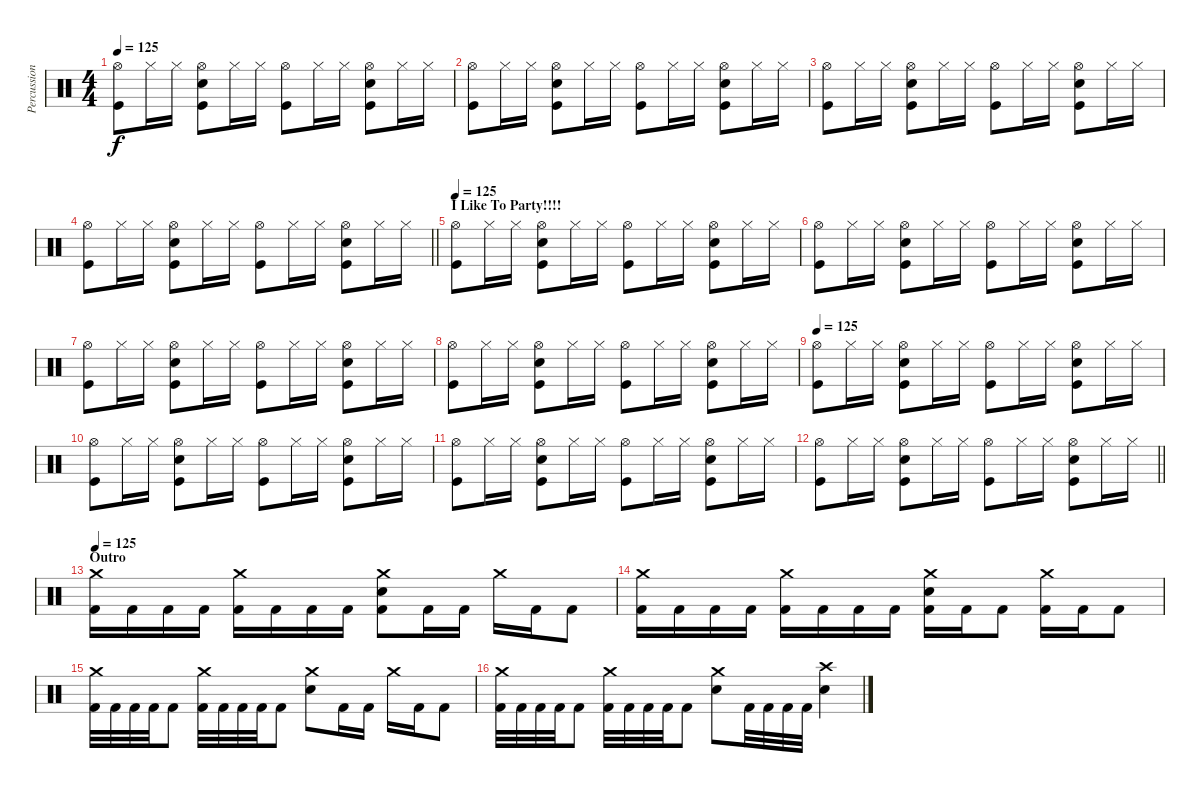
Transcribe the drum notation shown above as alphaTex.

\track ("Percussion" "Percussion") {instrument percussion}
\staff {score}
\articulation defaults
\ts (4 4)
\tempo 125
\clef neutral
\ks c
("Hi-Hat (open)" "Kick (hit)").8{dy f} "Hi-Hat (closed)".16 "Hi-Hat (closed)".16 ("Hi-Hat (open)" "Hand Clap (hit)" "Kick (hit)").8 "Hi-Hat (closed)".16 "Hi-Hat (closed)".16 ("Hi-Hat (open)" "Kick (hit)").8 "Hi-Hat (closed)".16 "Hi-Hat (closed)".16 ("Hi-Hat (open)" "Hand Clap (hit)" "Kick (hit)").8 "Hi-Hat (closed)".16 "Hi-Hat (closed)".16 |
("Hi-Hat (open)" "Kick (hit)").8 "Hi-Hat (closed)".16 "Hi-Hat (closed)".16 ("Hi-Hat (open)" "Hand Clap (hit)" "Kick (hit)").8 "Hi-Hat (closed)".16 "Hi-Hat (closed)".16 ("Hi-Hat (open)" "Kick (hit)").8 "Hi-Hat (closed)".16 "Hi-Hat (closed)".16 ("Hi-Hat (open)" "Hand Clap (hit)" "Kick (hit)").8 "Hi-Hat (closed)".16 "Hi-Hat (closed)".16 |
("Hi-Hat (open)" "Kick (hit)").8 "Hi-Hat (closed)".16 "Hi-Hat (closed)".16 ("Hi-Hat (open)" "Hand Clap (hit)" "Kick (hit)").8 "Hi-Hat (closed)".16 "Hi-Hat (closed)".16 ("Hi-Hat (open)" "Kick (hit)").8 "Hi-Hat (closed)".16 "Hi-Hat (closed)".16 ("Hi-Hat (open)" "Hand Clap (hit)" "Kick (hit)").8 "Hi-Hat (closed)".16 "Hi-Hat (closed)".16 |
\barLineRight lightlight
("Hi-Hat (open)" "Kick (hit)").8 "Hi-Hat (closed)".16 "Hi-Hat (closed)".16 ("Hi-Hat (open)" "Hand Clap (hit)" "Kick (hit)").8 "Hi-Hat (closed)".16 "Hi-Hat (closed)".16 ("Hi-Hat (open)" "Kick (hit)").8 "Hi-Hat (closed)".16 "Hi-Hat (closed)".16 ("Hi-Hat (open)" "Hand Clap (hit)" "Kick (hit)").8 "Hi-Hat (closed)".16 "Hi-Hat (closed)".16 |
\section ("" "I Like To Party!!!!")
\tempo 125
("Hi-Hat (open)" "Kick (hit)").8 "Hi-Hat (closed)".16 "Hi-Hat (closed)".16 ("Hi-Hat (open)" "Hand Clap (hit)" "Kick (hit)").8 "Hi-Hat (closed)".16 "Hi-Hat (closed)".16 ("Hi-Hat (open)" "Kick (hit)").8 "Hi-Hat (closed)".16 "Hi-Hat (closed)".16 ("Hi-Hat (open)" "Hand Clap (hit)" "Kick (hit)").8 "Hi-Hat (closed)".16 "Hi-Hat (closed)".16 |
("Hi-Hat (open)" "Kick (hit)").8 "Hi-Hat (closed)".16 "Hi-Hat (closed)".16 ("Hi-Hat (open)" "Hand Clap (hit)" "Kick (hit)").8 "Hi-Hat (closed)".16 "Hi-Hat (closed)".16 ("Hi-Hat (open)" "Kick (hit)").8 "Hi-Hat (closed)".16 "Hi-Hat (closed)".16 ("Hi-Hat (open)" "Hand Clap (hit)" "Kick (hit)").8 "Hi-Hat (closed)".16 "Hi-Hat (closed)".16 |
("Hi-Hat (open)" "Kick (hit)").8 "Hi-Hat (closed)".16 "Hi-Hat (closed)".16 ("Hi-Hat (open)" "Hand Clap (hit)" "Kick (hit)").8 "Hi-Hat (closed)".16 "Hi-Hat (closed)".16 ("Hi-Hat (open)" "Kick (hit)").8 "Hi-Hat (closed)".16 "Hi-Hat (closed)".16 ("Hi-Hat (open)" "Hand Clap (hit)" "Kick (hit)").8 "Hi-Hat (closed)".16 "Hi-Hat (closed)".16 |
("Hi-Hat (open)" "Kick (hit)").8 "Hi-Hat (closed)".16 "Hi-Hat (closed)".16 ("Hi-Hat (open)" "Hand Clap (hit)" "Kick (hit)").8 "Hi-Hat (closed)".16 "Hi-Hat (closed)".16 ("Hi-Hat (open)" "Kick (hit)").8 "Hi-Hat (closed)".16 "Hi-Hat (closed)".16 ("Hi-Hat (open)" "Hand Clap (hit)" "Kick (hit)").8 "Hi-Hat (closed)".16 "Hi-Hat (closed)".16 |
\tempo 125
("Hi-Hat (open)" "Kick (hit)").8 "Hi-Hat (closed)".16 "Hi-Hat (closed)".16 ("Hi-Hat (open)" "Hand Clap (hit)" "Kick (hit)").8 "Hi-Hat (closed)".16 "Hi-Hat (closed)".16 ("Hi-Hat (open)" "Kick (hit)").8 "Hi-Hat (closed)".16 "Hi-Hat (closed)".16 ("Hi-Hat (open)" "Hand Clap (hit)" "Kick (hit)").8 "Hi-Hat (closed)".16 "Hi-Hat (closed)".16 |
("Hi-Hat (open)" "Kick (hit)").8 "Hi-Hat (closed)".16 "Hi-Hat (closed)".16 ("Hi-Hat (open)" "Hand Clap (hit)" "Kick (hit)").8 "Hi-Hat (closed)".16 "Hi-Hat (closed)".16 ("Hi-Hat (open)" "Kick (hit)").8 "Hi-Hat (closed)".16 "Hi-Hat (closed)".16 ("Hi-Hat (open)" "Hand Clap (hit)" "Kick (hit)").8 "Hi-Hat (closed)".16 "Hi-Hat (closed)".16 |
("Hi-Hat (open)" "Kick (hit)").8 "Hi-Hat (closed)".16 "Hi-Hat (closed)".16 ("Hi-Hat (open)" "Hand Clap (hit)" "Kick (hit)").8 "Hi-Hat (closed)".16 "Hi-Hat (closed)".16 ("Hi-Hat (open)" "Kick (hit)").8 "Hi-Hat (closed)".16 "Hi-Hat (closed)".16 ("Hi-Hat (open)" "Hand Clap (hit)" "Kick (hit)").8 "Hi-Hat (closed)".16 "Hi-Hat (closed)".16 |
\barLineRight lightlight
("Hi-Hat (open)" "Kick (hit)").8 "Hi-Hat (closed)".16 "Hi-Hat (closed)".16 ("Hi-Hat (open)" "Hand Clap (hit)" "Kick (hit)").8 "Hi-Hat (closed)".16 "Hi-Hat (closed)".16 ("Hi-Hat (open)" "Kick (hit)").8 "Hi-Hat (closed)".16 "Hi-Hat (closed)".16 ("Hi-Hat (open)" "Hand Clap (hit)" "Kick (hit)").8 "Hi-Hat (closed)".16 "Hi-Hat (closed)".16 |
\section ("" "Outro ")
\tempo 125
("Crash medium (hit)" "Kick (hit) 2").16 "Kick (hit) 2".16 "Kick (hit) 2".16 "Kick (hit) 2".16 ("Crash medium (hit)" "Kick (hit) 2").16 "Kick (hit) 2".16 "Kick (hit) 2".16 "Kick (hit) 2".16 ("Crash medium (hit)" "Snare (hit) 2" "Kick (hit) 2").8 "Kick (hit) 2".16 "Kick (hit) 2".16 "Crash medium (hit)".16 "Kick (hit) 2".16 "Kick (hit) 2".8 |
("Crash medium (hit)" "Kick (hit) 2").16 "Kick (hit) 2".16 "Kick (hit) 2".16 "Kick (hit) 2".16 ("Crash medium (hit)" "Kick (hit) 2").16 "Kick (hit) 2".16 "Kick (hit) 2".16 "Kick (hit) 2".16 ("Crash medium (hit)" "Snare (hit) 2" "Kick (hit) 2").16 "Kick (hit) 2".16 "Kick (hit) 2".8 ("Crash medium (hit)" "Kick (hit) 2").16 "Kick (hit) 2".16 "Kick (hit) 2".8 |
("Crash medium (hit)" "Kick (hit) 2").32 "Kick (hit) 2".32 "Kick (hit) 2".32 "Kick (hit) 2".32 "Kick (hit) 2".8 ("Crash medium (hit)" "Kick (hit) 2").32 "Kick (hit) 2".32 "Kick (hit) 2".32 "Kick (hit) 2".32 "Kick (hit) 2".8 ("Crash medium (hit)" "Snare (hit) 2").8 "Kick (hit) 2".16 "Kick (hit) 2".16 "Crash medium (hit)".16 "Kick (hit) 2".16 "Kick (hit) 2".8 |
("Crash medium (hit)" "Kick (hit) 2").32 "Kick (hit) 2".32 "Kick (hit) 2".32 "Kick (hit) 2".32 "Kick (hit) 2".8 ("Crash medium (hit)" "Kick (hit) 2").32 "Kick (hit) 2".32 "Kick (hit) 2".32 "Kick (hit) 2".32 "Kick (hit) 2".8 ("Crash medium (hit)" "Snare (hit) 2").8 "Kick (hit) 2".32 "Kick (hit) 2".32 "Kick (hit) 2".32 "Kick (hit) 2".32 ("Crash high (hit)" "Snare (hit) 2").4
